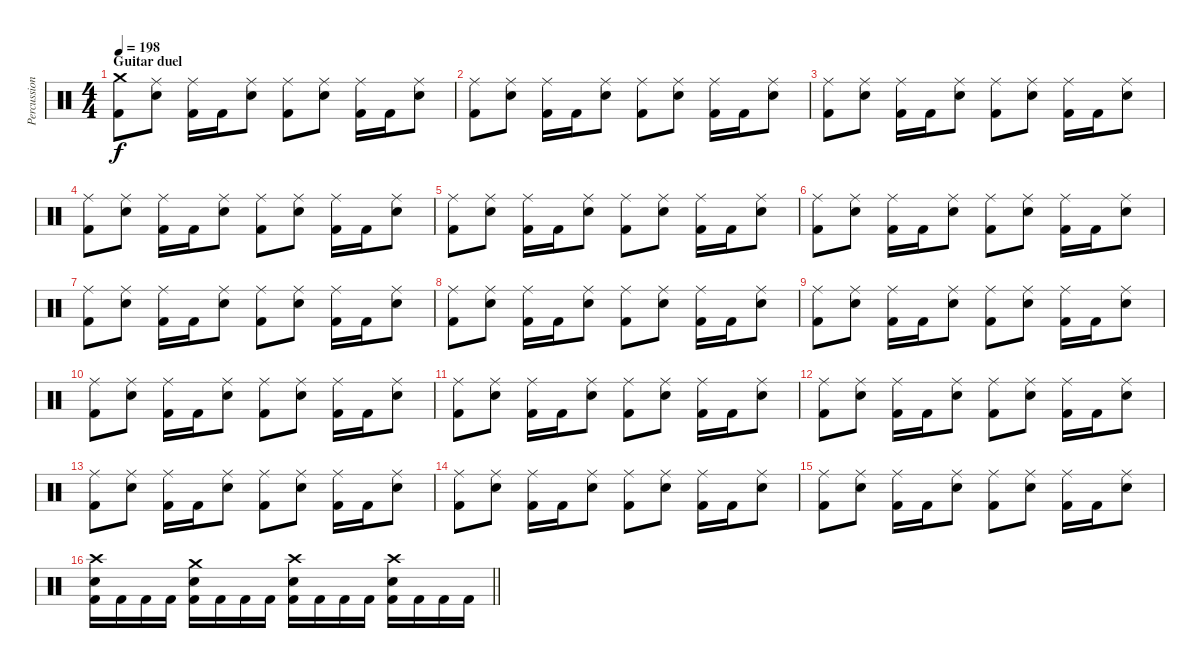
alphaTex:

\track ("Percussion" "Percussion") {instrument percussion}
\staff {score}
\articulation defaults
\ts (4 4)
\section ("" "Guitar duel")
\tempo 198
\clef neutral
\ks c
("Crash medium (hit)" "Kick (hit) 2").8{dy f} ("Ride (middle)" "Electric Snare (hit)").8 ("Ride (middle)" "Kick (hit) 2").16 "Kick (hit) 2".16 ("Ride (middle)" "Electric Snare (hit)").8 ("Ride (middle)" "Kick (hit) 2").8 ("Ride (middle)" "Electric Snare (hit)").8 ("Ride (middle)" "Kick (hit) 2").16 "Kick (hit) 2".16 ("Ride (middle)" "Electric Snare (hit)").8 |
("Ride (middle)" "Kick (hit) 2").8 ("Ride (middle)" "Electric Snare (hit)").8 ("Ride (middle)" "Kick (hit) 2").16 "Kick (hit) 2".16 ("Ride (middle)" "Electric Snare (hit)").8 ("Ride (middle)" "Kick (hit) 2").8 ("Ride (middle)" "Electric Snare (hit)").8 ("Ride (middle)" "Kick (hit) 2").16 "Kick (hit) 2".16 ("Ride (middle)" "Electric Snare (hit)").8 |
("Ride (middle)" "Kick (hit) 2").8 ("Ride (middle)" "Electric Snare (hit)").8 ("Ride (middle)" "Kick (hit) 2").16 "Kick (hit) 2".16 ("Ride (middle)" "Electric Snare (hit)").8 ("Ride (middle)" "Kick (hit) 2").8 ("Ride (middle)" "Electric Snare (hit)").8 ("Ride (middle)" "Kick (hit) 2").16 "Kick (hit) 2".16 ("Ride (middle)" "Electric Snare (hit)").8 |
("Ride (middle)" "Kick (hit) 2").8 ("Ride (middle)" "Electric Snare (hit)").8 ("Ride (middle)" "Kick (hit) 2").16 "Kick (hit) 2".16 ("Ride (middle)" "Electric Snare (hit)").8 ("Ride (middle)" "Kick (hit) 2").8 ("Ride (middle)" "Electric Snare (hit)").8 ("Ride (middle)" "Kick (hit) 2").16 "Kick (hit) 2".16 ("Ride (middle)" "Electric Snare (hit)").8 |
("Ride (middle)" "Kick (hit) 2").8 ("Ride (middle)" "Electric Snare (hit)").8 ("Ride (middle)" "Kick (hit) 2").16 "Kick (hit) 2".16 ("Ride (middle)" "Electric Snare (hit)").8 ("Ride (middle)" "Kick (hit) 2").8 ("Ride (middle)" "Electric Snare (hit)").8 ("Ride (middle)" "Kick (hit) 2").16 "Kick (hit) 2".16 ("Ride (middle)" "Electric Snare (hit)").8 |
("Ride (middle)" "Kick (hit) 2").8 ("Ride (middle)" "Electric Snare (hit)").8 ("Ride (middle)" "Kick (hit) 2").16 "Kick (hit) 2".16 ("Ride (middle)" "Electric Snare (hit)").8 ("Ride (middle)" "Kick (hit) 2").8 ("Ride (middle)" "Electric Snare (hit)").8 ("Ride (middle)" "Kick (hit) 2").16 "Kick (hit) 2".16 ("Ride (middle)" "Electric Snare (hit)").8 |
("Ride (middle)" "Kick (hit) 2").8 ("Ride (middle)" "Electric Snare (hit)").8 ("Ride (middle)" "Kick (hit) 2").16 "Kick (hit) 2".16 ("Ride (middle)" "Electric Snare (hit)").8 ("Ride (middle)" "Kick (hit) 2").8 ("Ride (middle)" "Electric Snare (hit)").8 ("Ride (middle)" "Kick (hit) 2").16 "Kick (hit) 2".16 ("Ride (middle)" "Electric Snare (hit)").8 |
("Ride (middle)" "Kick (hit) 2").8 ("Ride (middle)" "Electric Snare (hit)").8 ("Ride (middle)" "Kick (hit) 2").16 "Kick (hit) 2".16 ("Ride (middle)" "Electric Snare (hit)").8 ("Ride (middle)" "Kick (hit) 2").8 ("Ride (middle)" "Electric Snare (hit)").8 ("Ride (middle)" "Kick (hit) 2").16 "Kick (hit) 2".16 ("Ride (middle)" "Electric Snare (hit)").8 |
("Ride (middle)" "Kick (hit) 2").8 ("Ride (middle)" "Electric Snare (hit)").8 ("Ride (middle)" "Kick (hit) 2").16 "Kick (hit) 2".16 ("Ride (middle)" "Electric Snare (hit)").8 ("Ride (middle)" "Kick (hit) 2").8 ("Ride (middle)" "Electric Snare (hit)").8 ("Ride (middle)" "Kick (hit) 2").16 "Kick (hit) 2".16 ("Ride (middle)" "Electric Snare (hit)").8 |
("Ride (middle)" "Kick (hit) 2").8 ("Ride (middle)" "Electric Snare (hit)").8 ("Ride (middle)" "Kick (hit) 2").16 "Kick (hit) 2".16 ("Ride (middle)" "Electric Snare (hit)").8 ("Ride (middle)" "Kick (hit) 2").8 ("Ride (middle)" "Electric Snare (hit)").8 ("Ride (middle)" "Kick (hit) 2").16 "Kick (hit) 2".16 ("Ride (middle)" "Electric Snare (hit)").8 |
("Ride (middle)" "Kick (hit) 2").8 ("Ride (middle)" "Electric Snare (hit)").8 ("Ride (middle)" "Kick (hit) 2").16 "Kick (hit) 2".16 ("Ride (middle)" "Electric Snare (hit)").8 ("Ride (middle)" "Kick (hit) 2").8 ("Ride (middle)" "Electric Snare (hit)").8 ("Ride (middle)" "Kick (hit) 2").16 "Kick (hit) 2".16 ("Ride (middle)" "Electric Snare (hit)").8 |
("Ride (middle)" "Kick (hit) 2").8 ("Ride (middle)" "Electric Snare (hit)").8 ("Ride (middle)" "Kick (hit) 2").16 "Kick (hit) 2".16 ("Ride (middle)" "Electric Snare (hit)").8 ("Ride (middle)" "Kick (hit) 2").8 ("Ride (middle)" "Electric Snare (hit)").8 ("Ride (middle)" "Kick (hit) 2").16 "Kick (hit) 2".16 ("Ride (middle)" "Electric Snare (hit)").8 |
("Ride (middle)" "Kick (hit) 2").8 ("Ride (middle)" "Electric Snare (hit)").8 ("Ride (middle)" "Kick (hit) 2").16 "Kick (hit) 2".16 ("Ride (middle)" "Electric Snare (hit)").8 ("Ride (middle)" "Kick (hit) 2").8 ("Ride (middle)" "Electric Snare (hit)").8 ("Ride (middle)" "Kick (hit) 2").16 "Kick (hit) 2".16 ("Ride (middle)" "Electric Snare (hit)").8 |
("Ride (middle)" "Kick (hit) 2").8 ("Ride (middle)" "Electric Snare (hit)").8 ("Ride (middle)" "Kick (hit) 2").16 "Kick (hit) 2".16 ("Ride (middle)" "Electric Snare (hit)").8 ("Ride (middle)" "Kick (hit) 2").8 ("Ride (middle)" "Electric Snare (hit)").8 ("Ride (middle)" "Kick (hit) 2").16 "Kick (hit) 2".16 ("Ride (middle)" "Electric Snare (hit)").8 |
("Ride (middle)" "Kick (hit) 2").8 ("Ride (middle)" "Electric Snare (hit)").8 ("Ride (middle)" "Kick (hit) 2").16 "Kick (hit) 2".16 ("Ride (middle)" "Electric Snare (hit)").8 ("Ride (middle)" "Kick (hit) 2").8 ("Ride (middle)" "Electric Snare (hit)").8 ("Ride (middle)" "Kick (hit) 2").16 "Kick (hit) 2".16 ("Ride (middle)" "Electric Snare (hit)").8 |
\barLineRight lightlight
("Crash high (hit)" "Electric Snare (hit)" "Kick (hit) 2").16 "Kick (hit) 2".16 "Kick (hit) 2".16 "Kick (hit) 2".16 ("Crash medium (hit)" "Electric Snare (hit)" "Kick (hit) 2").16 "Kick (hit) 2".16 "Kick (hit) 2".16 "Kick (hit) 2".16 ("Crash high (hit)" "Electric Snare (hit)" "Kick (hit) 2").16 "Kick (hit) 2".16 "Kick (hit) 2".16 "Kick (hit) 2".16 ("Crash high (hit)" "Electric Snare (hit)" "Kick (hit) 2").16 "Kick (hit) 2".16 "Kick (hit) 2".16 "Kick (hit) 2".16
